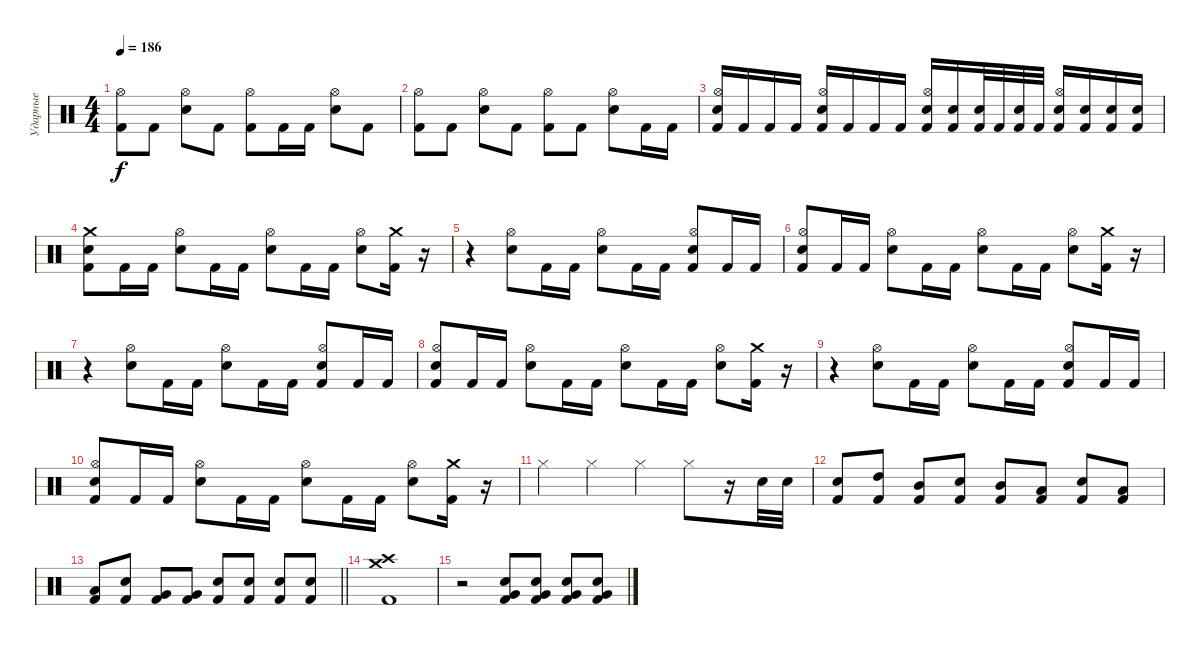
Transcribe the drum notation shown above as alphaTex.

\track ("Ударные" "Ударные") {instrument percussion}
\staff {score}
\articulation defaults
\ts (4 4)
\tempo 186
\clef neutral
\ks c
("Kick (hit) 2" "Hi-Hat (open)").8{dy f} "Kick (hit) 2".8 ("Snare (hit) 2" "Hi-Hat (open)").8 "Kick (hit) 2".8 ("Kick (hit) 2" "Hi-Hat (open)").8 "Kick (hit) 2".16 "Kick (hit) 2".16 ("Snare (hit) 2" "Hi-Hat (open)").8 "Kick (hit) 2".8 |
("Kick (hit) 2" "Hi-Hat (open)").8 "Kick (hit) 2".8 ("Snare (hit) 2" "Hi-Hat (open)").8 "Kick (hit) 2".8 ("Kick (hit) 2" "Hi-Hat (open)").8 "Kick (hit) 2".8 ("Snare (hit) 2" "Hi-Hat (open)").8 "Kick (hit) 2".16 "Kick (hit) 2".16 |
("Kick (hit) 2" "Snare (hit) 2" "Hi-Hat (open)").16 "Kick (hit) 2".16 "Kick (hit) 2".16 "Kick (hit) 2".16 ("Kick (hit) 2" "Snare (hit) 2" "Hi-Hat (open)").16 "Kick (hit) 2".16 "Kick (hit) 2".16 "Kick (hit) 2".16 ("Kick (hit) 2" "Snare (hit) 2" "Hi-Hat (open)").16 ("Kick (hit) 2" "Snare (hit) 2").16 ("Kick (hit) 2" "Snare (hit) 2").32 "Kick (hit) 2".32 ("Kick (hit) 2" "Snare (hit) 2").32 "Kick (hit) 2".32 ("Kick (hit) 2" "Snare (hit) 2" "Hi-Hat (open)").16 ("Kick (hit) 2" "Snare (hit) 2").16 ("Kick (hit) 2" "Snare (hit) 2").16 ("Kick (hit) 2" "Snare (hit) 2").16 |
("Kick (hit) 2" "Snare (hit) 2" "Crash medium (hit)").8 "Kick (hit) 2".16 "Kick (hit) 2".16 ("Snare (hit) 2" "Hi-Hat (open)").8 "Kick (hit) 2".16 "Kick (hit) 2".16 ("Snare (hit) 2" "Hi-Hat (open)").8 "Kick (hit) 2".16 "Kick (hit) 2".16 ("Snare (hit) 2" "Hi-Hat (open)").8 ("Kick (hit) 2" "Crash medium (hit)").16 r.16 |
r.4 ("Snare (hit) 2" "Hi-Hat (open)").8 "Kick (hit) 2".16 "Kick (hit) 2".16 ("Snare (hit) 2" "Hi-Hat (open)").8 "Kick (hit) 2".16 "Kick (hit) 2".16 ("Kick (hit) 2" "Snare (hit) 2" "Hi-Hat (open)").8 "Kick (hit) 2".16 "Kick (hit) 2".16 |
("Kick (hit) 2" "Snare (hit) 2" "Hi-Hat (open)").8 "Kick (hit) 2".16 "Kick (hit) 2".16 ("Snare (hit) 2" "Hi-Hat (open)").8 "Kick (hit) 2".16 "Kick (hit) 2".16 ("Snare (hit) 2" "Hi-Hat (open)").8 "Kick (hit) 2".16 "Kick (hit) 2".16 ("Snare (hit) 2" "Hi-Hat (open)").8 ("Kick (hit) 2" "Crash medium (hit)").16 r.16 |
r.4 ("Snare (hit) 2" "Hi-Hat (open)").8 "Kick (hit) 2".16 "Kick (hit) 2".16 ("Snare (hit) 2" "Hi-Hat (open)").8 "Kick (hit) 2".16 "Kick (hit) 2".16 ("Kick (hit) 2" "Snare (hit) 2" "Hi-Hat (open)").8 "Kick (hit) 2".16 "Kick (hit) 2".16 |
("Kick (hit) 2" "Snare (hit) 2" "Hi-Hat (open)").8 "Kick (hit) 2".16 "Kick (hit) 2".16 ("Snare (hit) 2" "Hi-Hat (open)").8 "Kick (hit) 2".16 "Kick (hit) 2".16 ("Snare (hit) 2" "Hi-Hat (open)").8 "Kick (hit) 2".16 "Kick (hit) 2".16 ("Snare (hit) 2" "Hi-Hat (open)").8 ("Kick (hit) 2" "Crash medium (hit)").16 r.16 |
r.4 ("Snare (hit) 2" "Hi-Hat (open)").8 "Kick (hit) 2".16 "Kick (hit) 2".16 ("Snare (hit) 2" "Hi-Hat (open)").8 "Kick (hit) 2".16 "Kick (hit) 2".16 ("Kick (hit) 2" "Snare (hit) 2" "Hi-Hat (open)").8 "Kick (hit) 2".16 "Kick (hit) 2".16 |
("Kick (hit) 2" "Snare (hit) 2" "Hi-Hat (open)").8 "Kick (hit) 2".16 "Kick (hit) 2".16 ("Snare (hit) 2" "Hi-Hat (open)").8 "Kick (hit) 2".16 "Kick (hit) 2".16 ("Snare (hit) 2" "Hi-Hat (open)").8 "Kick (hit) 2".16 "Kick (hit) 2".16 ("Snare (hit) 2" "Hi-Hat (open)").8 ("Kick (hit) 2" "Crash medium (hit)").16 r.16 |
"Hi-Hat (closed)".4 "Hi-Hat (closed)".4 "Hi-Hat (closed)".4 "Hi-Hat (closed)".8 r.16 "Snare (hit) 2".32 "Snare (hit) 2".32 |
("Kick (hit) 2" "Snare (hit) 2").8 ("Kick (hit) 2" "High Tom (hit)").8 ("Kick (hit) 2" "Mid Tom (hit)").8 ("Kick (hit) 2" "Snare (hit) 2").8 ("Kick (hit) 2" "Mid Tom (hit)").8 ("Kick (hit) 2" "Low Tom (hit)").8 ("Kick (hit) 2" "Snare (hit) 2").8 ("Kick (hit) 2" "Low Tom (hit)").8 |
\barLineRight lightlight
("Kick (hit) 2" "Low Tom (hit)").8 ("Kick (hit) 2" "Snare (hit) 2").8 ("Kick (hit) 2" "Very Low Tom (hit)").8 ("Kick (hit) 2" "Very Low Tom (hit)").8 ("Kick (hit) 2" "Snare (hit) 2").8 ("Kick (hit) 2" "Snare (hit) 2").8 ("Kick (hit) 2" "Snare (hit) 2").8 ("Kick (hit) 2" "Snare (hit) 2").8 |
("Kick (hit) 2" "Crash high (hit)" "Crash medium (hit)").1 |
r.2 ("Kick (hit) 2" "Snare (hit) 2" "Very Low Tom (hit)").8 ("Kick (hit) 2" "Snare (hit) 2" "Very Low Tom (hit)").8 ("Kick (hit) 2" "Snare (hit) 2" "Very Low Tom (hit)").8 ("Kick (hit) 2" "Snare (hit) 2" "Very Low Tom (hit)").8
